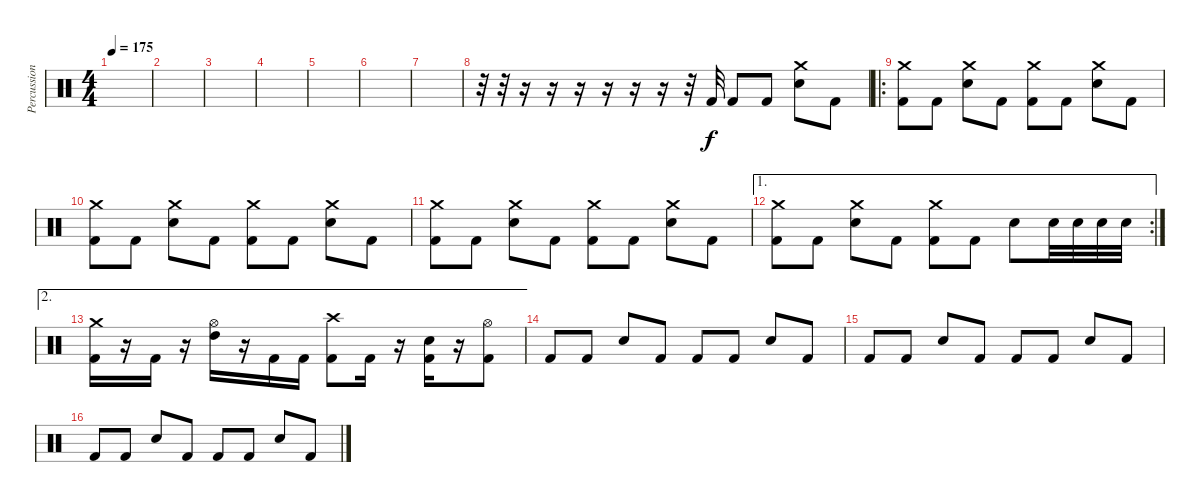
\track ("Percussions" "Percussion") {instrument percussion}
\staff {score}
\articulation defaults
\ts (4 4)
\tempo 175
\clef neutral
\ks c
|
|
|
|
|
|
|
r.32 r.32 r.16 r.16 r.16 r.16 r.16 r.16 r.32 "Kick (hit) 2".32 "Kick (hit) 2".8 "Kick (hit) 2".8 ("Crash medium (hit)" "Snare (hit) 2").8 "Kick (hit) 2".8 |
\ro
("Crash medium (hit)" "Kick (hit) 2").8 "Kick (hit) 2".8 ("Crash medium (hit)" "Snare (hit) 2").8 "Kick (hit) 2".8 ("Crash medium (hit)" "Kick (hit) 2").8 "Kick (hit) 2".8 ("Crash medium (hit)" "Snare (hit) 2").8 "Kick (hit) 2".8 |
("Crash medium (hit)" "Kick (hit) 2").8 "Kick (hit) 2".8 ("Crash medium (hit)" "Snare (hit) 2").8 "Kick (hit) 2".8 ("Crash medium (hit)" "Kick (hit) 2").8 "Kick (hit) 2".8 ("Crash medium (hit)" "Snare (hit) 2").8 "Kick (hit) 2".8 |
("Crash medium (hit)" "Kick (hit) 2").8 "Kick (hit) 2".8 ("Crash medium (hit)" "Snare (hit) 2").8 "Kick (hit) 2".8 ("Crash medium (hit)" "Kick (hit) 2").8 "Kick (hit) 2".8 ("Crash medium (hit)" "Snare (hit) 2").8 "Kick (hit) 2".8 |
\ae 1
\rc 2
("Crash medium (hit)" "Kick (hit) 2").8 "Kick (hit) 2".8 ("Crash medium (hit)" "Snare (hit) 2").8 "Kick (hit) 2".8 ("Crash medium (hit)" "Kick (hit) 2").8 "Kick (hit) 2".8 "Snare (hit) 2".8 "Snare (hit) 2".32 "Snare (hit) 2".32 "Snare (hit) 2".32 "Snare (hit) 2".32 |
\ae 2
("Crash medium (hit)" "Kick (hit) 2").16 r.16 "Kick (hit) 2".16 r.16 ("Hi-Hat (open)" "High Tom (hit)").16 r.16 "Kick (hit) 2".16 "Kick (hit) 2".16 ("Crash high (hit)" "Kick (hit) 2").8 "Kick (hit) 2".16 r.16 ("Snare (hit) 2" "Kick (hit) 2").16 r.16 ("Hi-Hat (open)" "Kick (hit) 2").8 |
"Kick (hit) 2".8 "Kick (hit) 2".8 "Snare (hit) 2".8 "Kick (hit) 2".8 "Kick (hit) 2".8 "Kick (hit) 2".8 "Snare (hit) 2".8 "Kick (hit) 2".8 |
"Kick (hit) 2".8 "Kick (hit) 2".8 "Snare (hit) 2".8 "Kick (hit) 2".8 "Kick (hit) 2".8 "Kick (hit) 2".8 "Snare (hit) 2".8 "Kick (hit) 2".8 |
"Kick (hit) 2".8 "Kick (hit) 2".8 "Snare (hit) 2".8 "Kick (hit) 2".8 "Kick (hit) 2".8 "Kick (hit) 2".8 "Snare (hit) 2".8 "Kick (hit) 2".8
